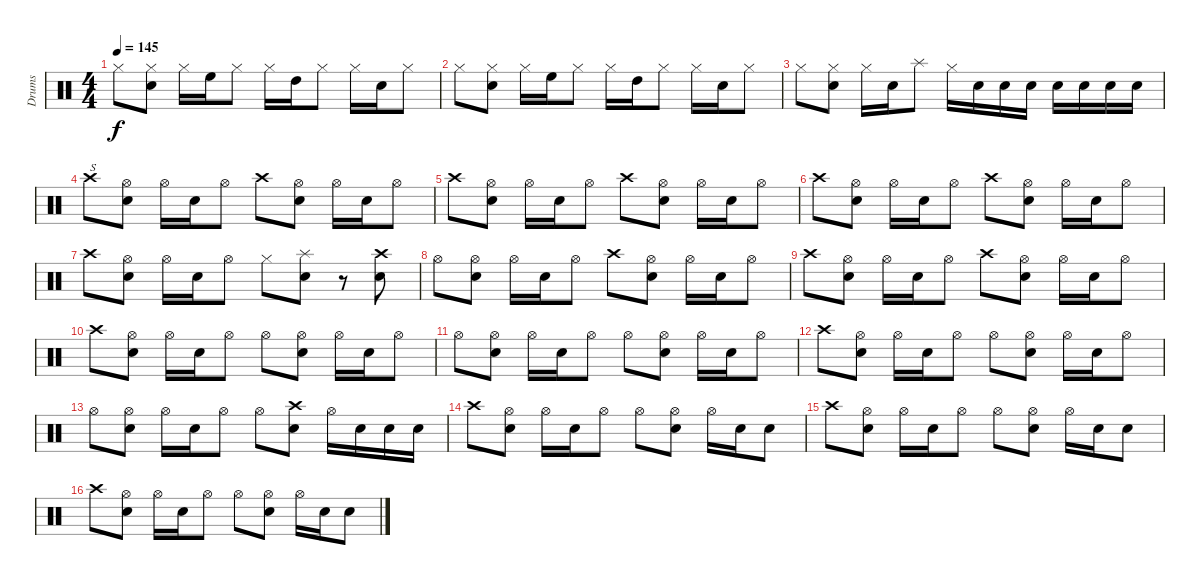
\track ("Drums" "Drums") {instrument percussion}
\staff {score}
\articulation defaults
\ts (4 4)
\tempo 145
\clef neutral
\ks c "Hi-Hat (closed)".8{dy f}
("Hi-Hat (closed)" "Snare (hit) 2").8 "Hi-Hat (closed)".16 "High Floor Tom (hit)".16 "Hi-Hat (closed)".8 "Hi-Hat (closed)".16 "High Tom (hit)".16 "Hi-Hat (closed)".8 "Hi-Hat (closed)".16 "Snare (hit) 2".16 "Hi-Hat (closed)".8 |
"Hi-Hat (closed)".8 ("Hi-Hat (closed)" "Snare (hit) 2").8 "Hi-Hat (closed)".16 "High Floor Tom (hit)".16 "Hi-Hat (closed)".8 "Hi-Hat (closed)".16 "High Tom (hit)".16 "Hi-Hat (closed)".8 "Hi-Hat (closed)".16 "Snare (hit) 2".16 "Hi-Hat (closed)".8 |
"Hi-Hat (closed)".8 ("Hi-Hat (closed)" "Snare (hit) 2").8 "Hi-Hat (closed)".16 "Snare (hit) 2".16 "Splash (hit)".8 "Hi-Hat (closed)".16 "Snare (hit) 2".16 "Snare (hit) 2".16 "Snare (hit) 2".16 "Snare (hit) 2".16 "Snare (hit) 2".16 "Snare (hit) 2".16 "Snare (hit) 2".16 |
"Crash high (hit)".8{txt "S"} ("Hi-Hat (open)" "Snare (hit) 2").8 "Hi-Hat (open)".16 "Snare (hit) 2".16 "Hi-Hat (open)".8 "Crash high (hit)".8 ("Hi-Hat (open)" "Snare (hit) 2").8 "Hi-Hat (open)".16 "Snare (hit) 2".16 "Hi-Hat (open)".8 |
"Crash high (hit)".8 ("Hi-Hat (open)" "Snare (hit) 2").8 "Hi-Hat (open)".16 "Snare (hit) 2".16 "Hi-Hat (open)".8 "Crash high (hit)".8 ("Hi-Hat (open)" "Snare (hit) 2").8 "Hi-Hat (open)".16 "Snare (hit) 2".16 "Hi-Hat (open)".8 |
"Crash high (hit)".8 ("Hi-Hat (open)" "Snare (hit) 2").8 "Hi-Hat (open)".16 "Snare (hit) 2".16 "Hi-Hat (open)".8 "Crash high (hit)".8 ("Hi-Hat (open)" "Snare (hit) 2").8 "Hi-Hat (open)".16 "Snare (hit) 2".16 "Hi-Hat (open)".8 |
"Crash high (hit)".8 ("Hi-Hat (open)" "Snare (hit) 2").8 "Hi-Hat (open)".16 "Snare (hit) 2".16 "Hi-Hat (open)".8 "Hi-Hat (closed)".8 ("Splash (hit)" "Snare (hit) 2").8 r.8 ("Crash high (hit)" "Snare (hit) 2").8 |
"Hi-Hat (open)".8 ("Hi-Hat (open)" "Snare (hit) 2").8 "Hi-Hat (open)".16 "Snare (hit) 2".16 "Hi-Hat (open)".8 "Crash high (hit)".8 ("Hi-Hat (open)" "Snare (hit) 2").8 "Hi-Hat (open)".16 "Snare (hit) 2".16 "Hi-Hat (open)".8 |
"Crash high (hit)".8 ("Hi-Hat (open)" "Snare (hit) 2").8 "Hi-Hat (open)".16 "Snare (hit) 2".16 "Hi-Hat (open)".8 "Crash high (hit)".8 ("Hi-Hat (open)" "Snare (hit) 2").8 "Hi-Hat (open)".16 "Snare (hit) 2".16 "Hi-Hat (open)".8 |
"Crash high (hit)".8 ("Hi-Hat (open)" "Snare (hit) 2").8 "Hi-Hat (open)".16 "Snare (hit) 2".16 "Hi-Hat (open)".8 "Hi-Hat (open)".8 ("Hi-Hat (open)" "Snare (hit) 2").8 "Hi-Hat (open)".16 "Snare (hit) 2".16 "Hi-Hat (open)".8 |
"Hi-Hat (open)".8 ("Hi-Hat (open)" "Snare (hit) 2").8 "Hi-Hat (open)".16 "Snare (hit) 2".16 "Hi-Hat (open)".8 "Hi-Hat (open)".8 ("Hi-Hat (open)" "Snare (hit) 2").8 "Hi-Hat (open)".16 "Snare (hit) 2".16 "Hi-Hat (open)".8 |
"Crash high (hit)".8 ("Hi-Hat (open)" "Snare (hit) 2").8 "Hi-Hat (open)".16 "Snare (hit) 2".16 "Hi-Hat (open)".8 "Hi-Hat (open)".8 ("Hi-Hat (open)" "Snare (hit) 2").8 "Hi-Hat (open)".16 "Snare (hit) 2".16 "Hi-Hat (open)".8 |
"Hi-Hat (open)".8 ("Hi-Hat (open)" "Snare (hit) 2").8 "Hi-Hat (open)".16 "Snare (hit) 2".16 "Hi-Hat (open)".8 "Hi-Hat (open)".8 ("Crash high (hit)" "Snare (hit) 2").8 "Hi-Hat (open)".16 "Snare (hit) 2".16 "Snare (hit) 2".16 "Snare (hit) 2".16 |
"Crash high (hit)".8 ("Hi-Hat (open)" "Snare (hit) 2").8 "Hi-Hat (open)".16 "Snare (hit) 2".16 "Hi-Hat (open)".8 "Hi-Hat (open)".8 ("Hi-Hat (open)" "Snare (hit) 2").8 "Hi-Hat (open)".16 "Snare (hit) 2".16 "Snare (hit) 2".8 |
"Crash high (hit)".8 ("Hi-Hat (open)" "Snare (hit) 2").8 "Hi-Hat (open)".16 "Snare (hit) 2".16 "Hi-Hat (open)".8 "Hi-Hat (open)".8 ("Hi-Hat (open)" "Snare (hit) 2").8 "Hi-Hat (open)".16 "Snare (hit) 2".16 "Snare (hit) 2".8 |
"Crash high (hit)".8 ("Hi-Hat (open)" "Snare (hit) 2").8 "Hi-Hat (open)".16 "Snare (hit) 2".16 "Hi-Hat (open)".8 "Hi-Hat (open)".8 ("Hi-Hat (open)" "Snare (hit) 2").8 "Hi-Hat (open)".16 "Snare (hit) 2".16 "Snare (hit) 2".8
